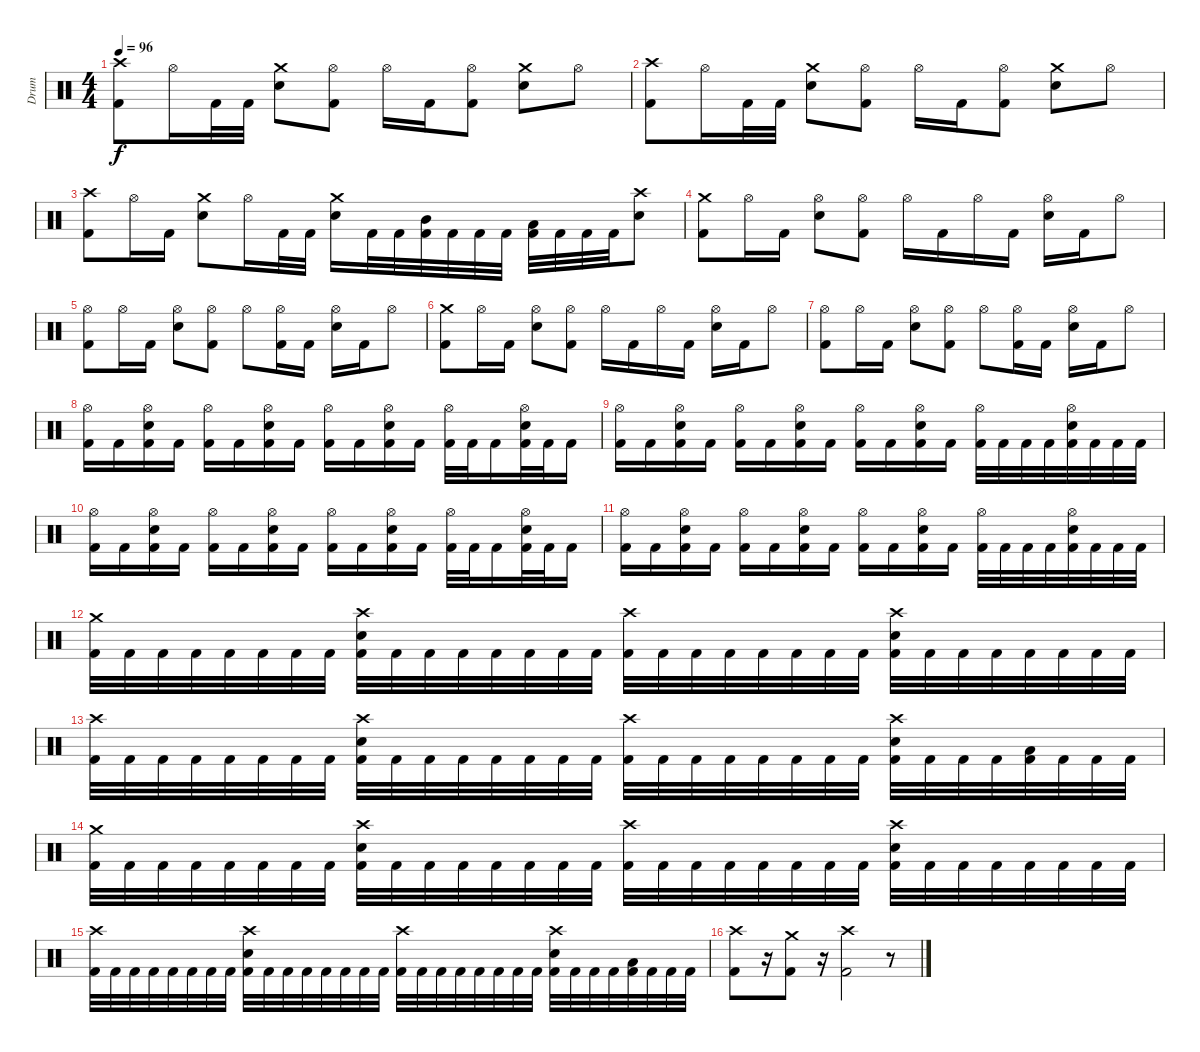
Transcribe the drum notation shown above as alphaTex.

\track ("Drum" "Drum") {instrument percussion}
\staff {score}
\articulation defaults
\ts (4 4)
\tempo 96
\clef neutral
\ks c
("Crash high (hit)" "Kick (hit) 2").8{dy f} "Hi-Hat (open)".16 "Kick (hit) 2".32 "Kick (hit) 2".32 ("Crash medium (hit)" "Snare (hit) 2").8 ("Hi-Hat (open)" "Kick (hit) 2").8 "Hi-Hat (open)".16 "Kick (hit) 2".16 ("Hi-Hat (open)" "Kick (hit) 2").8 ("Crash medium (hit)" "Snare (hit) 2").8 "Hi-Hat (open)".8 |
("Crash high (hit)" "Kick (hit) 2").8 "Hi-Hat (open)".16 "Kick (hit) 2".32 "Kick (hit) 2".32 ("Crash medium (hit)" "Snare (hit) 2").8 ("Hi-Hat (open)" "Kick (hit) 2").8 "Hi-Hat (open)".16 "Kick (hit) 2".16 ("Hi-Hat (open)" "Kick (hit) 2").8 ("Crash medium (hit)" "Snare (hit) 2").8 "Hi-Hat (open)".8 |
("Crash high (hit)" "Kick (hit) 2").8 "Hi-Hat (open)".16 "Kick (hit) 2".16 ("Crash medium (hit)" "Snare (hit) 2").8 "Hi-Hat (open)".16 "Kick (hit) 2".32 "Kick (hit) 2".32 ("Crash medium (hit)" "Snare (hit) 2").16 "Kick (hit) 2".32 "Kick (hit) 2".32 ("Mid Tom (hit)" "Kick (hit) 2").32 "Kick (hit) 2".32 "Kick (hit) 2".32 "Kick (hit) 2".32 ("Low Tom (hit)" "Kick (hit) 2").32 "Kick (hit) 2".32 "Kick (hit) 2".32 "Kick (hit) 2".32 ("Crash high (hit)" "Snare (hit) 2").8 |
("Crash medium (hit)" "Kick (hit) 2").8 "Hi-Hat (open)".16 "Kick (hit) 2".16 ("Hi-Hat (open)" "Snare (hit) 2").8 ("Hi-Hat (open)" "Kick (hit) 2").8 "Hi-Hat (open)".16 "Kick (hit) 2".16 "Hi-Hat (open)".16 "Kick (hit) 2".16 ("Hi-Hat (open)" "Snare (hit) 2").16 "Kick (hit) 2".16 "Hi-Hat (open)".8 |
("Hi-Hat (open)" "Kick (hit) 2").8 "Hi-Hat (open)".16 "Kick (hit) 2".16 ("Hi-Hat (open)" "Snare (hit) 2").8 ("Hi-Hat (open)" "Kick (hit) 2").8 "Hi-Hat (open)".8 ("Hi-Hat (open)" "Kick (hit) 2").16 "Kick (hit) 2".16 ("Hi-Hat (open)" "Snare (hit) 2").16 "Kick (hit) 2".16 "Hi-Hat (open)".8 |
("Crash medium (hit)" "Kick (hit) 2").8 "Hi-Hat (open)".16 "Kick (hit) 2".16 ("Hi-Hat (open)" "Snare (hit) 2").8 ("Hi-Hat (open)" "Kick (hit) 2").8 "Hi-Hat (open)".16 "Kick (hit) 2".16 "Hi-Hat (open)".16 "Kick (hit) 2".16 ("Hi-Hat (open)" "Snare (hit) 2").16 "Kick (hit) 2".16 "Hi-Hat (open)".8 |
("Hi-Hat (open)" "Kick (hit) 2").8 "Hi-Hat (open)".16 "Kick (hit) 2".16 ("Hi-Hat (open)" "Snare (hit) 2").8 ("Hi-Hat (open)" "Kick (hit) 2").8 "Hi-Hat (open)".8 ("Hi-Hat (open)" "Kick (hit) 2").16 "Kick (hit) 2".16 ("Hi-Hat (open)" "Snare (hit) 2").16 "Kick (hit) 2".16 "Hi-Hat (open)".8 |
("Hi-Hat (open)" "Kick (hit) 2").16 "Kick (hit) 2".16 ("Hi-Hat (open)" "Snare (hit) 2" "Kick (hit) 2").16 "Kick (hit) 2".16 ("Hi-Hat (open)" "Kick (hit) 2").16 "Kick (hit) 2".16 ("Hi-Hat (open)" "Snare (hit) 2" "Kick (hit) 2").16 "Kick (hit) 2".16 ("Hi-Hat (open)" "Kick (hit) 2").16 "Kick (hit) 2".16 ("Hi-Hat (open)" "Snare (hit) 2" "Kick (hit) 2").16 "Kick (hit) 2".16 ("Hi-Hat (open)" "Kick (hit) 2").32 "Kick (hit) 2".32 "Kick (hit) 2".16 ("Hi-Hat (open)" "Snare (hit) 2" "Kick (hit) 2").32 "Kick (hit) 2".32 "Kick (hit) 2".16 |
("Hi-Hat (open)" "Kick (hit) 2").16 "Kick (hit) 2".16 ("Hi-Hat (open)" "Snare (hit) 2" "Kick (hit) 2").16 "Kick (hit) 2".16 ("Hi-Hat (open)" "Kick (hit) 2").16 "Kick (hit) 2".16 ("Hi-Hat (open)" "Snare (hit) 2" "Kick (hit) 2").16 "Kick (hit) 2".16 ("Hi-Hat (open)" "Kick (hit) 2").16 "Kick (hit) 2".16 ("Hi-Hat (open)" "Snare (hit) 2" "Kick (hit) 2").16 "Kick (hit) 2".16 ("Hi-Hat (open)" "Kick (hit) 2").32 "Kick (hit) 2".32 "Kick (hit) 2".32 "Kick (hit) 2".32 ("Hi-Hat (open)" "Snare (hit) 2" "Kick (hit) 2").32 "Kick (hit) 2".32 "Kick (hit) 2".32 "Kick (hit) 2".32 |
("Hi-Hat (open)" "Kick (hit) 2").16 "Kick (hit) 2".16 ("Hi-Hat (open)" "Snare (hit) 2" "Kick (hit) 2").16 "Kick (hit) 2".16 ("Hi-Hat (open)" "Kick (hit) 2").16 "Kick (hit) 2".16 ("Hi-Hat (open)" "Snare (hit) 2" "Kick (hit) 2").16 "Kick (hit) 2".16 ("Hi-Hat (open)" "Kick (hit) 2").16 "Kick (hit) 2".16 ("Hi-Hat (open)" "Snare (hit) 2" "Kick (hit) 2").16 "Kick (hit) 2".16 ("Hi-Hat (open)" "Kick (hit) 2").32 "Kick (hit) 2".32 "Kick (hit) 2".16 ("Hi-Hat (open)" "Snare (hit) 2" "Kick (hit) 2").32 "Kick (hit) 2".32 "Kick (hit) 2".16 |
("Hi-Hat (open)" "Kick (hit) 2").16 "Kick (hit) 2".16 ("Hi-Hat (open)" "Snare (hit) 2" "Kick (hit) 2").16 "Kick (hit) 2".16 ("Hi-Hat (open)" "Kick (hit) 2").16 "Kick (hit) 2".16 ("Hi-Hat (open)" "Snare (hit) 2" "Kick (hit) 2").16 "Kick (hit) 2".16 ("Hi-Hat (open)" "Kick (hit) 2").16 "Kick (hit) 2".16 ("Hi-Hat (open)" "Snare (hit) 2" "Kick (hit) 2").16 "Kick (hit) 2".16 ("Hi-Hat (open)" "Kick (hit) 2").32 "Kick (hit) 2".32 "Kick (hit) 2".32 "Kick (hit) 2".32 ("Hi-Hat (open)" "Snare (hit) 2" "Kick (hit) 2").32 "Kick (hit) 2".32 "Kick (hit) 2".32 "Kick (hit) 2".32 |
("Crash medium (hit)" "Kick (hit) 2").32 "Kick (hit) 2".32 "Kick (hit) 2".32 "Kick (hit) 2".32 "Kick (hit) 2".32 "Kick (hit) 2".32 "Kick (hit) 2".32 "Kick (hit) 2".32 ("Crash high (hit)" "Snare (hit) 2" "Kick (hit) 2").32 "Kick (hit) 2".32 "Kick (hit) 2".32 "Kick (hit) 2".32 "Kick (hit) 2".32 "Kick (hit) 2".32 "Kick (hit) 2".32 "Kick (hit) 2".32 ("Crash high (hit)" "Kick (hit) 2").32 "Kick (hit) 2".32 "Kick (hit) 2".32 "Kick (hit) 2".32 "Kick (hit) 2".32 "Kick (hit) 2".32 "Kick (hit) 2".32 "Kick (hit) 2".32 ("Crash high (hit)" "Snare (hit) 2" "Kick (hit) 2").32 "Kick (hit) 2".32 "Kick (hit) 2".32 "Kick (hit) 2".32 "Kick (hit) 2".32 "Kick (hit) 2".32 "Kick (hit) 2".32 "Kick (hit) 2".32 |
("Crash high (hit)" "Kick (hit) 2").32 "Kick (hit) 2".32 "Kick (hit) 2".32 "Kick (hit) 2".32 "Kick (hit) 2".32 "Kick (hit) 2".32 "Kick (hit) 2".32 "Kick (hit) 2".32 ("Crash high (hit)" "Snare (hit) 2" "Kick (hit) 2").32 "Kick (hit) 2".32 "Kick (hit) 2".32 "Kick (hit) 2".32 "Kick (hit) 2".32 "Kick (hit) 2".32 "Kick (hit) 2".32 "Kick (hit) 2".32 ("Crash high (hit)" "Kick (hit) 2").32 "Kick (hit) 2".32 "Kick (hit) 2".32 "Kick (hit) 2".32 "Kick (hit) 2".32 "Kick (hit) 2".32 "Kick (hit) 2".32 "Kick (hit) 2".32 ("Crash high (hit)" "Snare (hit) 2" "Kick (hit) 2").32 "Kick (hit) 2".32 "Kick (hit) 2".32 "Kick (hit) 2".32 ("Low Tom (hit)" "Kick (hit) 2").32 "Kick (hit) 2".32 "Kick (hit) 2".32 "Kick (hit) 2".32 |
("Crash medium (hit)" "Kick (hit) 2").32 "Kick (hit) 2".32 "Kick (hit) 2".32 "Kick (hit) 2".32 "Kick (hit) 2".32 "Kick (hit) 2".32 "Kick (hit) 2".32 "Kick (hit) 2".32 ("Crash high (hit)" "Snare (hit) 2" "Kick (hit) 2").32 "Kick (hit) 2".32 "Kick (hit) 2".32 "Kick (hit) 2".32 "Kick (hit) 2".32 "Kick (hit) 2".32 "Kick (hit) 2".32 "Kick (hit) 2".32 ("Crash high (hit)" "Kick (hit) 2").32 "Kick (hit) 2".32 "Kick (hit) 2".32 "Kick (hit) 2".32 "Kick (hit) 2".32 "Kick (hit) 2".32 "Kick (hit) 2".32 "Kick (hit) 2".32 ("Crash high (hit)" "Snare (hit) 2" "Kick (hit) 2").32 "Kick (hit) 2".32 "Kick (hit) 2".32 "Kick (hit) 2".32 "Kick (hit) 2".32 "Kick (hit) 2".32 "Kick (hit) 2".32 "Kick (hit) 2".32 |
("Crash high (hit)" "Kick (hit) 2").32 "Kick (hit) 2".32 "Kick (hit) 2".32 "Kick (hit) 2".32 "Kick (hit) 2".32 "Kick (hit) 2".32 "Kick (hit) 2".32 "Kick (hit) 2".32 ("Crash high (hit)" "Snare (hit) 2" "Kick (hit) 2").32 "Kick (hit) 2".32 "Kick (hit) 2".32 "Kick (hit) 2".32 "Kick (hit) 2".32 "Kick (hit) 2".32 "Kick (hit) 2".32 "Kick (hit) 2".32 ("Crash high (hit)" "Kick (hit) 2").32 "Kick (hit) 2".32 "Kick (hit) 2".32 "Kick (hit) 2".32 "Kick (hit) 2".32 "Kick (hit) 2".32 "Kick (hit) 2".32 "Kick (hit) 2".32 ("Crash high (hit)" "Snare (hit) 2" "Kick (hit) 2").32 "Kick (hit) 2".32 "Kick (hit) 2".32 "Kick (hit) 2".32 ("Low Tom (hit)" "Kick (hit) 2").32 "Kick (hit) 2".32 "Kick (hit) 2".32 "Kick (hit) 2".32 |
("Crash high (hit)" "Kick (hit) 2").8 r.16 ("Crash medium (hit)" "Kick (hit) 2").8 r.16 ("Crash high (hit)" "Kick (hit) 2").2 r.8
